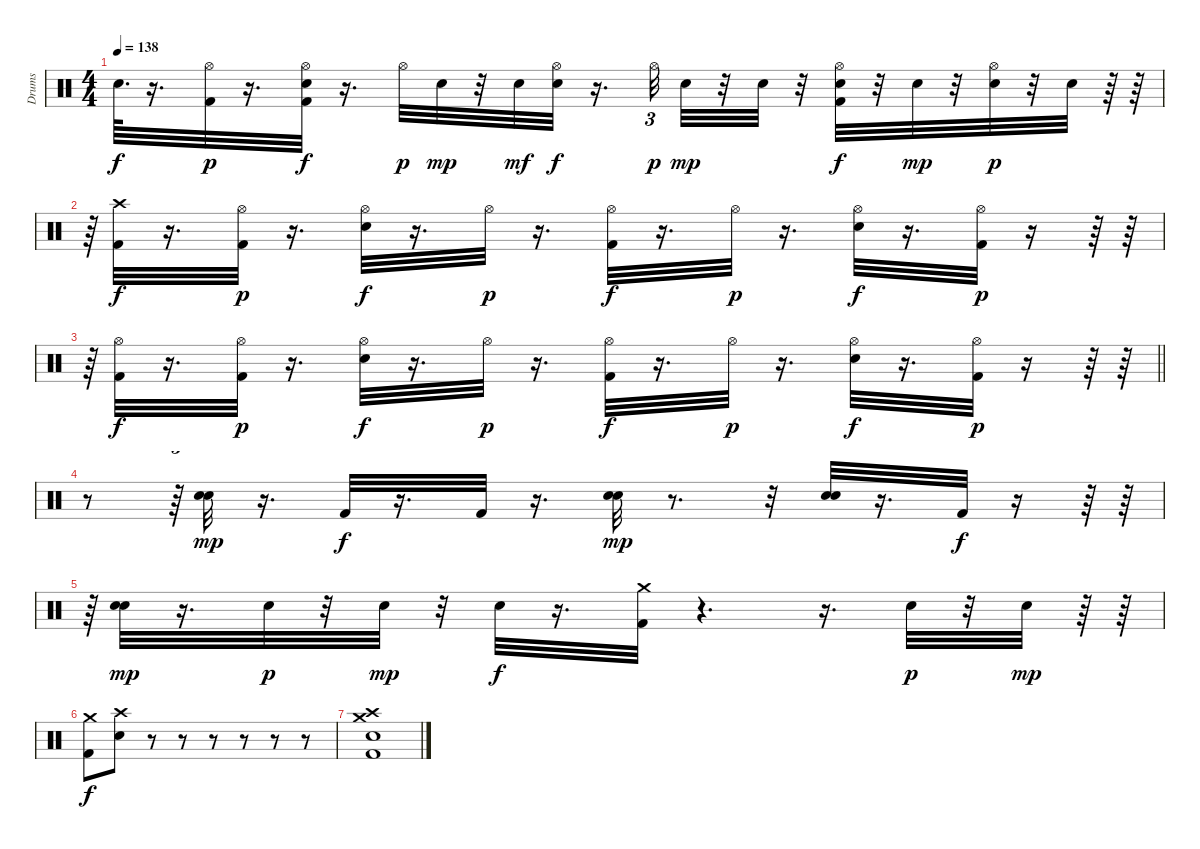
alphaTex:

\track ("Drums" "Drums") {instrument percussion}
\staff {score}
\articulation defaults
\ts (4 4)
\tempo 138
\clef neutral
\ks c "Snare (hit)"{t}.64{d dy f}
r.16{d} ("Kick (hit) 2" "Hi-Hat (open)").32{dy p} r.16{d} ("Kick (hit) 2" "Hi-Hat (open)" "Electric Snare (hit)").32{dy f} r.16{d} "Hi-Hat (open)".32{dy p} "Electric Snare (hit)".32{dy mp} r.32 "Electric Snare (hit)".32{dy mf} ("Hi-Hat (open)" "Electric Snare (hit)").32{dy f} r.16{d} "Hi-Hat (open)".32{tu (3 2) dy p} "Electric Snare (hit)".32{dy mp} r.32 "Electric Snare (hit)".32 r.32 ("Kick (hit) 2" "Hi-Hat (open)" "Electric Snare (hit)").32{dy f} r.32 "Electric Snare (hit)".32{dy mp} r.32 ("Electric Snare (hit)" "Hi-Hat (open)").32{dy p} r.32 "Electric Snare (hit)".32 r.64 r.64 |
r.64{tu (5 4)} ("Crash high (hit)" "Kick (hit) 2").32{dy f} r.16{d} ("Kick (hit) 2" "Hi-Hat (open)").32{dy p} r.16{d} ("Hi-Hat (open)" "Electric Snare (hit)").32{dy f} r.16{d} "Hi-Hat (open)".32{dy p} r.16{d} ("Hi-Hat (open)" "Kick (hit) 2").32{dy f} r.16{d} "Hi-Hat (open)".32{dy p} r.16{d} ("Hi-Hat (open)" "Electric Snare (hit)").32{dy f} r.16{d} ("Kick (hit) 2" "Hi-Hat (open)").32{dy p} r.16 r.64 r.64 |
\barLineRight lightlight
r.64{tu (5 4)} ("Hi-Hat (open)" "Kick (hit) 2").32{dy f} r.16{d} ("Kick (hit) 2" "Hi-Hat (open)").32{dy p} r.16{d} ("Hi-Hat (open)" "Electric Snare (hit)").32{dy f} r.16{d} "Hi-Hat (open)".32{dy p} r.16{d} ("Hi-Hat (open)" "Kick (hit) 2").32{dy f} r.16{d} "Hi-Hat (open)".32{dy p} r.16{d} ("Hi-Hat (open)" "Electric Snare (hit)").32{dy f} r.16{d} ("Kick (hit) 2" "Hi-Hat (open)").32{dy p} r.16 r.64 r.64 |
r.8 r.64{tu (5 4)} ("Electric Snare (hit)" "Snare (hit) 2").32{dy mp} r.16{d} "Kick (hit) 2".32{dy f} r.16{d} "Kick (hit) 2".32 r.16{d} ("Electric Snare (hit)" "Snare (hit) 2").32{dy mp} r.8{d} r.32 ("Electric Snare (hit)" "Snare (hit) 2").32 r.16{d} "Kick (hit) 2".32{dy f} r.16 r.64 r.64 |
r.64{tu (5 4)} ("Electric Snare (hit)" "Snare (hit) 2").32{dy mp} r.16{d} "Electric Snare (hit)".32{dy p} r.32 "Electric Snare (hit)".32{dy mp} r.32 "Electric Snare (hit)".32{dy f} r.16{d} ("Crash medium (hit)" "Kick (hit) 2").32 r.4{d} r.16{d} "Electric Snare (hit)".32{dy p} r.32 "Electric Snare (hit)".32{dy mp} r.64 r.64 |
("Kick (hit) 2" "Crash medium (hit)").8{dy f} ("Snare (hit) 2" "Crash high (hit)").8 r.8 r.8 r.8 r.8 r.8 r.8 |
("Crash high (hit)" "Snare (hit) 2" "Kick (hit) 2" "Crash medium (hit)").1
